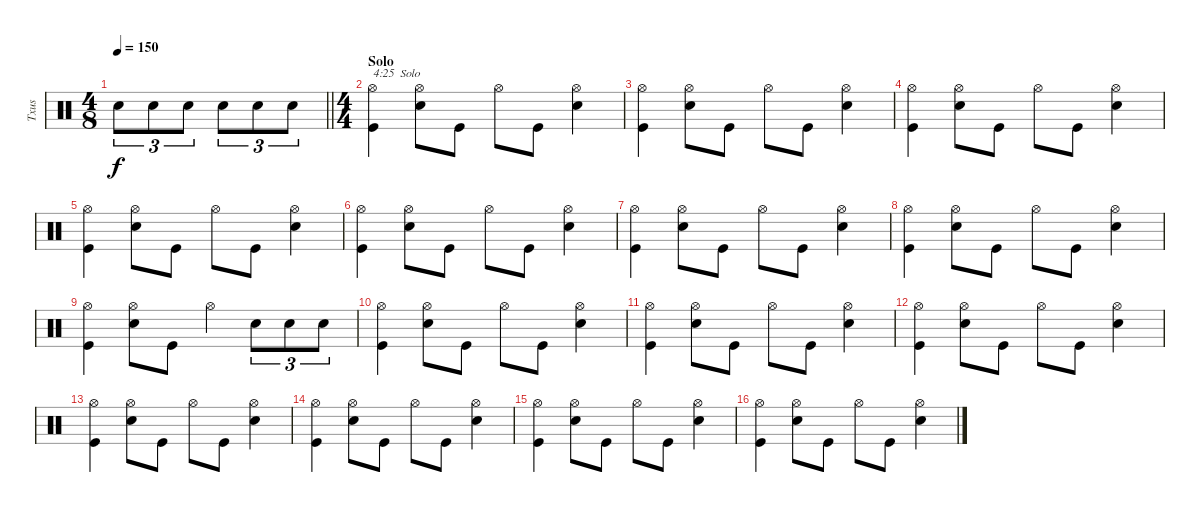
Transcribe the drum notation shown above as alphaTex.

\track ("Txus" "Txus") {instrument percussion}
\staff {score}
\articulation defaults
\ts (4 8)
\tempo 150
\clef neutral
\barLineRight lightlight
\ks c "Snare (hit) 2".8{tu (3 2) dy f} "Snare (hit) 2".8{tu (3 2)} "Snare (hit) 2".8{tu (3 2)} "Snare (hit) 2".8{tu (3 2)} "Snare (hit) 2".8{tu (3 2)} "Snare (hit) 2".8{tu (3 2)}
|
\ts (4 4)
\section ("" "Solo")
("Kick (hit)" "Hi-Hat (open)").4{txt "4:25  Solo"} ("Snare (hit) 2" "Hi-Hat (open)").8 "Kick (hit)".8 "Hi-Hat (open)".8 "Kick (hit)".8 ("Snare (hit) 2" "Hi-Hat (open)").4 |
("Kick (hit)" "Hi-Hat (open)").4 ("Snare (hit) 2" "Hi-Hat (open)").8 "Kick (hit)".8 "Hi-Hat (open)".8 "Kick (hit)".8 ("Snare (hit) 2" "Hi-Hat (open)").4 |
("Kick (hit)" "Hi-Hat (open)").4 ("Snare (hit) 2" "Hi-Hat (open)").8 "Kick (hit)".8 "Hi-Hat (open)".8 "Kick (hit)".8 ("Snare (hit) 2" "Hi-Hat (open)").4 |
("Kick (hit)" "Hi-Hat (open)").4 ("Snare (hit) 2" "Hi-Hat (open)").8 "Kick (hit)".8 "Hi-Hat (open)".8 "Kick (hit)".8 ("Snare (hit) 2" "Hi-Hat (open)").4 |
("Kick (hit)" "Hi-Hat (open)").4 ("Snare (hit) 2" "Hi-Hat (open)").8 "Kick (hit)".8 "Hi-Hat (open)".8 "Kick (hit)".8 ("Snare (hit) 2" "Hi-Hat (open)").4 |
("Kick (hit)" "Hi-Hat (open)").4 ("Snare (hit) 2" "Hi-Hat (open)").8 "Kick (hit)".8 "Hi-Hat (open)".8 "Kick (hit)".8 ("Snare (hit) 2" "Hi-Hat (open)").4 |
("Kick (hit)" "Hi-Hat (open)").4 ("Snare (hit) 2" "Hi-Hat (open)").8 "Kick (hit)".8 "Hi-Hat (open)".8 "Kick (hit)".8 ("Snare (hit) 2" "Hi-Hat (open)").4 |
("Kick (hit)" "Hi-Hat (open)").4 ("Snare (hit) 2" "Hi-Hat (open)").8 "Kick (hit)".8 "Hi-Hat (open)".4 "Snare (hit) 2".8{tu (3 2)} "Snare (hit) 2".8{tu (3 2)} "Snare (hit) 2".8{tu (3 2)} |
("Kick (hit)" "Hi-Hat (open)").4 ("Snare (hit) 2" "Hi-Hat (open)").8 "Kick (hit)".8 "Hi-Hat (open)".8 "Kick (hit)".8 ("Snare (hit) 2" "Hi-Hat (open)").4 |
("Kick (hit)" "Hi-Hat (open)").4 ("Snare (hit) 2" "Hi-Hat (open)").8 "Kick (hit)".8 "Hi-Hat (open)".8 "Kick (hit)".8 ("Snare (hit) 2" "Hi-Hat (open)").4 |
("Kick (hit)" "Hi-Hat (open)").4 ("Snare (hit) 2" "Hi-Hat (open)").8 "Kick (hit)".8 "Hi-Hat (open)".8 "Kick (hit)".8 ("Snare (hit) 2" "Hi-Hat (open)").4 |
("Kick (hit)" "Hi-Hat (open)").4 ("Snare (hit) 2" "Hi-Hat (open)").8 "Kick (hit)".8 "Hi-Hat (open)".8 "Kick (hit)".8 ("Snare (hit) 2" "Hi-Hat (open)").4 |
("Kick (hit)" "Hi-Hat (open)").4 ("Snare (hit) 2" "Hi-Hat (open)").8 "Kick (hit)".8 "Hi-Hat (open)".8 "Kick (hit)".8 ("Snare (hit) 2" "Hi-Hat (open)").4 |
("Kick (hit)" "Hi-Hat (open)").4 ("Snare (hit) 2" "Hi-Hat (open)").8 "Kick (hit)".8 "Hi-Hat (open)".8 "Kick (hit)".8 ("Snare (hit) 2" "Hi-Hat (open)").4 |
("Kick (hit)" "Hi-Hat (open)").4 ("Snare (hit) 2" "Hi-Hat (open)").8 "Kick (hit)".8 "Hi-Hat (open)".8 "Kick (hit)".8 ("Snare (hit) 2" "Hi-Hat (open)").4
